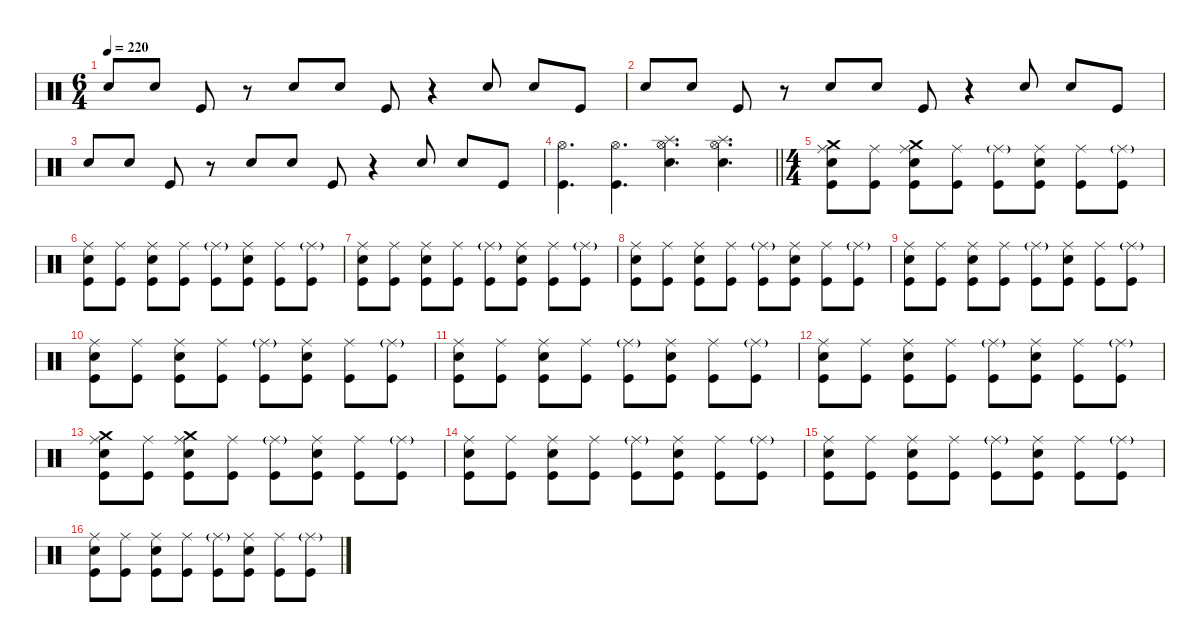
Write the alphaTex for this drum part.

\defaultSystemsLayout 4
\hideDynamics
\bracketExtendMode nobrackets
\singleTrackTrackNamePolicy hidden
\multiTrackTrackNamePolicy hidden
\firstSystemTrackNameMode fullname
\firstSystemTrackNameOrientation horizontal
\otherSystemsTrackNameOrientation horizontal
\track ("Drums" "drm.") {instrument percussion}
\staff {score}
\articulation defaults
\ts (6 4)
\tempo 220
\clef neutral
\ks c "Snare (hit) 2".8{dy ff beam Up} "Snare (hit) 2".8{beam Up} "Kick (hit)".8{beam Up}
r.8{beam Up} "Snare (hit) 2".8{beam Up} "Snare (hit) 2".8{beam Up} "Kick (hit)".8{beam Up} r.4{beam Up} "Snare (hit) 2".8{beam Up} "Snare (hit) 2".8{beam Up} "Kick (hit)".8{beam Up} |
"Snare (hit) 2".8{beam Up} "Snare (hit) 2".8{beam Up} "Kick (hit)".8{beam Up} r.8{beam Up} "Snare (hit) 2".8{beam Up} "Snare (hit) 2".8{beam Up} "Kick (hit)".8{beam Up} r.4{beam Up} "Snare (hit) 2".8{beam Up} "Snare (hit) 2".8{beam Up} "Kick (hit)".8{beam Up} |
"Snare (hit) 2".8{beam Up} "Snare (hit) 2".8{beam Up} "Kick (hit)".8{beam Up} r.8{beam Up} "Snare (hit) 2".8{beam Up} "Snare (hit) 2".8{beam Up} "Kick (hit)".8{beam Up} r.4{beam Up} "Snare (hit) 2".8{beam Up} "Snare (hit) 2".8{beam Up} "Kick (hit)".8{beam Up} |
\barLineRight lightlight
("Hi-Hat (open)" "Kick (hit)").4{d dy mp beam Down} ("Hi-Hat (open)" "Kick (hit)").4{d beam Down} ("Splash (hit)" "Hi-Hat (open)" "Snare (hit) 2").4{d dy f beam Down} ("Splash (hit)" "Hi-Hat (open)" "Snare (hit) 2").4{d beam Down} |
\ts (4 4)
("Crash medium (hit)" "Ride (middle)" "Snare (hit) 2" "Kick (hit)").8{beam Down} ("Ride (middle)" "Kick (hit)").8{dy mf beam Down} ("Crash medium (hit)" "Ride (middle)" "Snare (hit) 2" "Kick (hit)").8{dy f beam Down} ("Ride (middle)" "Kick (hit)").8{dy mf beam Down} ("Ride (middle)"{g} "Kick (hit)").8{dy f beam Down} ("Ride (middle)" "Snare (hit) 2" "Kick (hit)").8{dy mf beam Down} ("Ride (middle)" "Kick (hit)").8{beam Down} ("Ride (middle)"{g} "Kick (hit)").8{dy f beam Down} |
("Ride (middle)" "Snare (hit) 2" "Kick (hit)").8{dy mf beam Down} ("Ride (middle)" "Kick (hit)").8{beam Down} ("Ride (middle)" "Snare (hit) 2" "Kick (hit)").8{beam Down} ("Ride (middle)" "Kick (hit)").8{beam Down} ("Ride (middle)"{g} "Kick (hit)").8{dy f beam Down} ("Ride (middle)" "Snare (hit) 2" "Kick (hit)").8{dy mf beam Down} ("Ride (middle)" "Kick (hit)").8{beam Down} ("Ride (middle)"{g} "Kick (hit)").8{dy f beam Down} |
("Ride (middle)" "Snare (hit) 2" "Kick (hit)").8{dy mf beam Down} ("Ride (middle)" "Kick (hit)").8{beam Down} ("Ride (middle)" "Snare (hit) 2" "Kick (hit)").8{beam Down} ("Ride (middle)" "Kick (hit)").8{beam Down} ("Ride (middle)"{g} "Kick (hit)").8{dy f beam Down} ("Ride (middle)" "Snare (hit) 2" "Kick (hit)").8{dy mf beam Down} ("Ride (middle)" "Kick (hit)").8{beam Down} ("Ride (middle)"{g} "Kick (hit)").8{dy f beam Down} |
("Ride (middle)" "Snare (hit) 2" "Kick (hit)").8{dy mf beam Down} ("Ride (middle)" "Kick (hit)").8{beam Down} ("Ride (middle)" "Snare (hit) 2" "Kick (hit)").8{beam Down} ("Ride (middle)" "Kick (hit)").8{beam Down} ("Ride (middle)"{g} "Kick (hit)").8{dy f beam Down} ("Ride (middle)" "Snare (hit) 2" "Kick (hit)").8{dy mf beam Down} ("Ride (middle)" "Kick (hit)").8{beam Down} ("Ride (middle)"{g} "Kick (hit)").8{dy f beam Down} |
("Ride (middle)" "Snare (hit) 2" "Kick (hit)").8{dy mf beam Down} ("Ride (middle)" "Kick (hit)").8{beam Down} ("Ride (middle)" "Snare (hit) 2" "Kick (hit)").8{beam Down} ("Ride (middle)" "Kick (hit)").8{beam Down} ("Ride (middle)"{g} "Kick (hit)").8{dy f beam Down} ("Ride (middle)" "Snare (hit) 2" "Kick (hit)").8{dy mf beam Down} ("Ride (middle)" "Kick (hit)").8{beam Down} ("Ride (middle)"{g} "Kick (hit)").8{dy f beam Down} |
("Ride (middle)" "Snare (hit) 2" "Kick (hit)").8{dy mf beam Down} ("Ride (middle)" "Kick (hit)").8{beam Down} ("Ride (middle)" "Snare (hit) 2" "Kick (hit)").8{beam Down} ("Ride (middle)" "Kick (hit)").8{beam Down} ("Ride (middle)"{g} "Kick (hit)").8{dy f beam Down} ("Ride (middle)" "Snare (hit) 2" "Kick (hit)").8{dy mf beam Down} ("Ride (middle)" "Kick (hit)").8{beam Down} ("Ride (middle)"{g} "Kick (hit)").8{dy f beam Down} |
("Ride (middle)" "Snare (hit) 2" "Kick (hit)").8{dy mf beam Down} ("Ride (middle)" "Kick (hit)").8{beam Down} ("Ride (middle)" "Snare (hit) 2" "Kick (hit)").8{beam Down} ("Ride (middle)" "Kick (hit)").8{beam Down} ("Ride (middle)"{g} "Kick (hit)").8{dy f beam Down} ("Ride (middle)" "Snare (hit) 2" "Kick (hit)").8{dy mf beam Down} ("Ride (middle)" "Kick (hit)").8{beam Down} ("Ride (middle)"{g} "Kick (hit)").8{dy f beam Down} |
("Ride (middle)" "Snare (hit) 2" "Kick (hit)").8{dy mf beam Down} ("Ride (middle)" "Kick (hit)").8{beam Down} ("Ride (middle)" "Snare (hit) 2" "Kick (hit)").8{beam Down} ("Ride (middle)" "Kick (hit)").8{beam Down} ("Ride (middle)"{g} "Kick (hit)").8{dy f beam Down} ("Ride (middle)" "Snare (hit) 2" "Kick (hit)").8{dy mf beam Down} ("Ride (middle)" "Kick (hit)").8{beam Down} ("Ride (middle)"{g} "Kick (hit)").8{dy f beam Down} |
("Crash medium (hit)" "Ride (middle)" "Snare (hit) 2" "Kick (hit)").8{beam Down} ("Ride (middle)" "Kick (hit)").8{dy mf beam Down} ("Crash medium (hit)" "Ride (middle)" "Snare (hit) 2" "Kick (hit)").8{dy f beam Down} ("Ride (middle)" "Kick (hit)").8{dy mf beam Down} ("Ride (middle)"{g} "Kick (hit)").8{dy f beam Down} ("Ride (middle)" "Snare (hit) 2" "Kick (hit)").8{dy mf beam Down} ("Ride (middle)" "Kick (hit)").8{beam Down} ("Ride (middle)"{g} "Kick (hit)").8{dy f beam Down} |
("Ride (middle)" "Snare (hit) 2" "Kick (hit)").8{dy mf beam Down} ("Ride (middle)" "Kick (hit)").8{beam Down} ("Ride (middle)" "Snare (hit) 2" "Kick (hit)").8{beam Down} ("Ride (middle)" "Kick (hit)").8{beam Down} ("Ride (middle)"{g} "Kick (hit)").8{dy f beam Down} ("Ride (middle)" "Snare (hit) 2" "Kick (hit)").8{dy mf beam Down} ("Ride (middle)" "Kick (hit)").8{beam Down} ("Ride (middle)"{g} "Kick (hit)").8{dy f beam Down} |
("Ride (middle)" "Snare (hit) 2" "Kick (hit)").8{dy mf beam Down} ("Ride (middle)" "Kick (hit)").8{beam Down} ("Ride (middle)" "Snare (hit) 2" "Kick (hit)").8{beam Down} ("Ride (middle)" "Kick (hit)").8{beam Down} ("Ride (middle)"{g} "Kick (hit)").8{dy f beam Down} ("Ride (middle)" "Snare (hit) 2" "Kick (hit)").8{dy mf beam Down} ("Ride (middle)" "Kick (hit)").8{beam Down} ("Ride (middle)"{g} "Kick (hit)").8{dy f beam Down} |
("Ride (middle)" "Snare (hit) 2" "Kick (hit)").8{dy mf beam Down} ("Ride (middle)" "Kick (hit)").8{beam Down} ("Ride (middle)" "Snare (hit) 2" "Kick (hit)").8{beam Down} ("Ride (middle)" "Kick (hit)").8{beam Down} ("Ride (middle)"{g} "Kick (hit)").8{dy f beam Down} ("Ride (middle)" "Snare (hit) 2" "Kick (hit)").8{dy mf beam Down} ("Ride (middle)" "Kick (hit)").8{beam Down} ("Ride (middle)"{g} "Kick (hit)").8{dy f beam Down}
